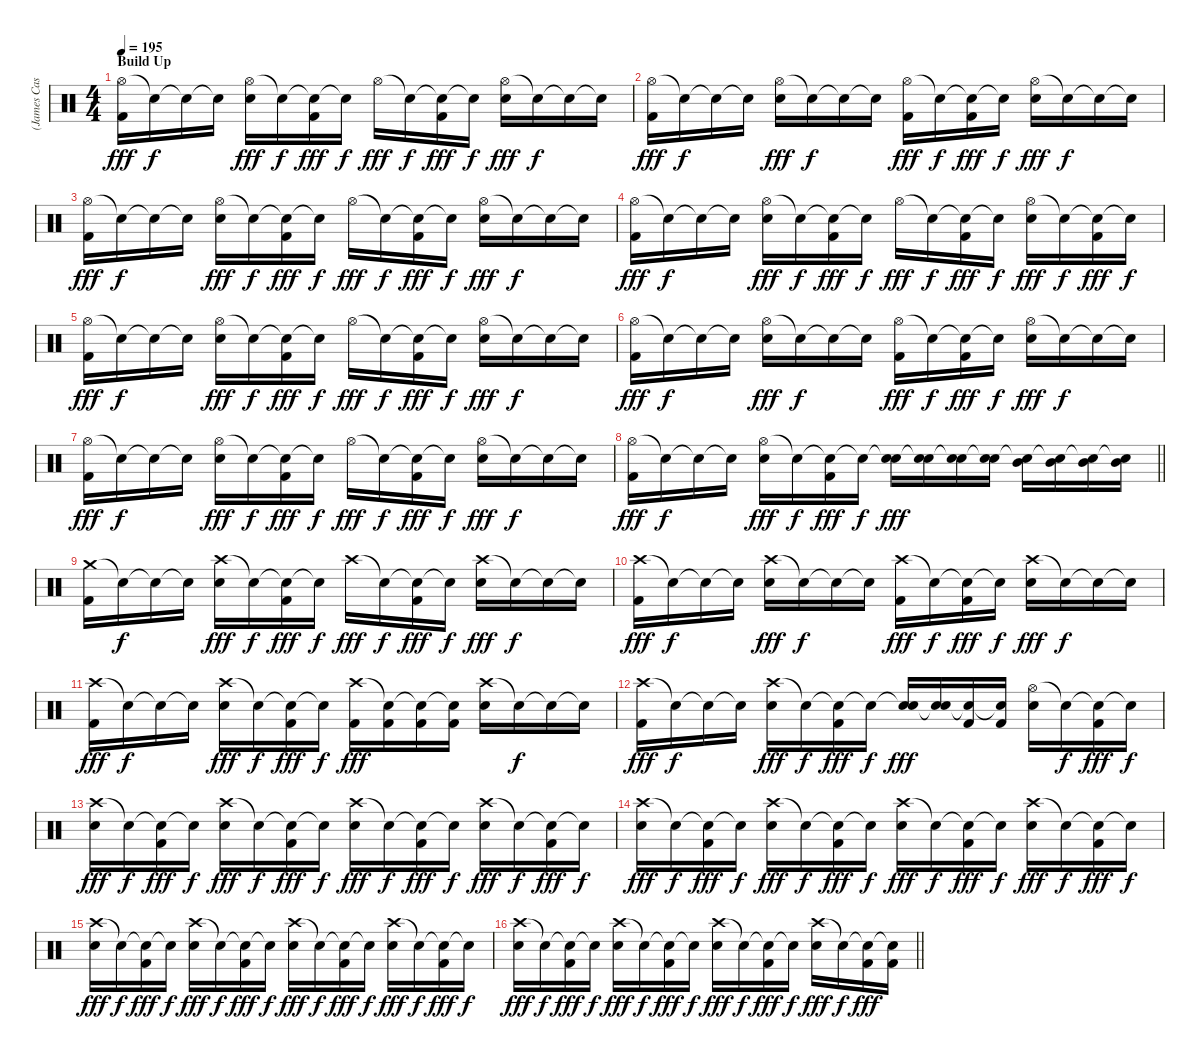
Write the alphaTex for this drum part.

\track ("(James Cassells) Drums" "(James Cas") {instrument percussion}
\staff {score}
\articulation defaults
\ts (4 4)
\section ("" "Build Up")
\tempo 195
\clef neutral
\ks c
("Hi-Hat (open)" "Kick (hit) 2").16{dy fff} "Snare (hit)"{t}.16{dy f} "Snare (hit)"{t}.16 "Snare (hit)"{t}.16 ("Hi-Hat (open)" "Electric Snare (hit)").16{dy fff} "Snare (hit)"{t}.16{dy f} ("Snare (hit)"{t} "Kick (hit) 2").16{dy fff} "Snare (hit)"{t}.16{dy f} "Hi-Hat (open)".16{dy fff} "Snare (hit)"{t}.16{dy f} ("Snare (hit)"{t} "Kick (hit) 2").16{dy fff} "Snare (hit)"{t}.16{dy f} ("Hi-Hat (open)" "Electric Snare (hit)").16{dy fff} "Snare (hit)"{t}.16{dy f} "Snare (hit)"{t}.16 "Snare (hit)"{t}.16 |
("Hi-Hat (open)" "Kick (hit) 2").16{dy fff} "Snare (hit)"{t}.16{dy f} "Snare (hit)"{t}.16 "Snare (hit)"{t}.16 ("Hi-Hat (open)" "Electric Snare (hit)").16{dy fff} "Snare (hit)"{t}.16{dy f} "Snare (hit)"{t}.16 "Snare (hit)"{t}.16 ("Hi-Hat (open)" "Kick (hit) 2").16{dy fff} "Snare (hit)"{t}.16{dy f} ("Snare (hit)"{t} "Kick (hit) 2").16{dy fff} "Snare (hit)"{t}.16{dy f} ("Hi-Hat (open)" "Electric Snare (hit)").16{dy fff} "Snare (hit)"{t}.16{dy f} "Snare (hit)"{t}.16 "Snare (hit)"{t}.16 |
("Hi-Hat (open)" "Kick (hit) 2").16{dy fff} "Snare (hit)"{t}.16{dy f} "Snare (hit)"{t}.16 "Snare (hit)"{t}.16 ("Hi-Hat (open)" "Electric Snare (hit)").16{dy fff} "Snare (hit)"{t}.16{dy f} ("Snare (hit)"{t} "Kick (hit) 2").16{dy fff} "Snare (hit)"{t}.16{dy f} "Hi-Hat (open)".16{dy fff} "Snare (hit)"{t}.16{dy f} ("Snare (hit)"{t} "Kick (hit) 2").16{dy fff} "Snare (hit)"{t}.16{dy f} ("Hi-Hat (open)" "Electric Snare (hit)").16{dy fff} "Snare (hit)"{t}.16{dy f} "Snare (hit)"{t}.16 "Snare (hit)"{t}.16 |
("Hi-Hat (open)" "Kick (hit) 2").16{dy fff} "Snare (hit)"{t}.16{dy f} "Snare (hit)"{t}.16 "Snare (hit)"{t}.16 ("Hi-Hat (open)" "Electric Snare (hit)").16{dy fff} "Snare (hit)"{t}.16{dy f} ("Snare (hit)"{t} "Kick (hit) 2").16{dy fff} "Snare (hit)"{t}.16{dy f} "Hi-Hat (open)".16{dy fff} "Snare (hit)"{t}.16{dy f} ("Snare (hit)"{t} "Kick (hit) 2").16{dy fff} "Snare (hit)"{t}.16{dy f} ("Hi-Hat (open)" "Electric Snare (hit)").16{dy fff} "Snare (hit)"{t}.16{dy f} ("Snare (hit)"{t} "Kick (hit) 2").16{dy fff} "Snare (hit)"{t}.16{dy f} |
("Hi-Hat (open)" "Kick (hit) 2").16{dy fff} "Snare (hit)"{t}.16{dy f} "Snare (hit)"{t}.16 "Snare (hit)"{t}.16 ("Hi-Hat (open)" "Electric Snare (hit)").16{dy fff} "Snare (hit)"{t}.16{dy f} ("Snare (hit)"{t} "Kick (hit) 2").16{dy fff} "Snare (hit)"{t}.16{dy f} "Hi-Hat (open)".16{dy fff} "Snare (hit)"{t}.16{dy f} ("Snare (hit)"{t} "Kick (hit) 2").16{dy fff} "Snare (hit)"{t}.16{dy f} ("Hi-Hat (open)" "Electric Snare (hit)").16{dy fff} "Snare (hit)"{t}.16{dy f} "Snare (hit)"{t}.16 "Snare (hit)"{t}.16 |
("Hi-Hat (open)" "Kick (hit) 2").16{dy fff} "Snare (hit)"{t}.16{dy f} "Snare (hit)"{t}.16 "Snare (hit)"{t}.16 ("Hi-Hat (open)" "Electric Snare (hit)").16{dy fff} "Snare (hit)"{t}.16{dy f} "Snare (hit)"{t}.16 "Snare (hit)"{t}.16 ("Hi-Hat (open)" "Kick (hit) 2").16{dy fff} "Snare (hit)"{t}.16{dy f} ("Snare (hit)"{t} "Kick (hit) 2").16{dy fff} "Snare (hit)"{t}.16{dy f} ("Hi-Hat (open)" "Electric Snare (hit)").16{dy fff} "Snare (hit)"{t}.16{dy f} "Snare (hit)"{t}.16 "Snare (hit)"{t}.16 |
("Hi-Hat (open)" "Kick (hit) 2").16{dy fff} "Snare (hit)"{t}.16{dy f} "Snare (hit)"{t}.16 "Snare (hit)"{t}.16 ("Hi-Hat (open)" "Electric Snare (hit)").16{dy fff} "Snare (hit)"{t}.16{dy f} ("Snare (hit)"{t} "Kick (hit) 2").16{dy fff} "Snare (hit)"{t}.16{dy f} "Hi-Hat (open)".16{dy fff} "Snare (hit)"{t}.16{dy f} ("Snare (hit)"{t} "Kick (hit) 2").16{dy fff} "Snare (hit)"{t}.16{dy f} ("Hi-Hat (open)" "Electric Snare (hit)").16{dy fff} "Snare (hit)"{t}.16{dy f} "Snare (hit)"{t}.16 "Snare (hit)"{t}.16 |
\barLineRight lightlight
("Hi-Hat (open)" "Kick (hit) 2").16{dy fff} "Snare (hit)"{t}.16{dy f} "Snare (hit)"{t}.16 "Snare (hit)"{t}.16 ("Hi-Hat (open)" "Electric Snare (hit)").16{dy fff} "Snare (hit)"{t}.16{dy f} ("Snare (hit)"{t} "Kick (hit) 2").16{dy fff} "Snare (hit)"{t}.16{dy f} ("Snare (hit)"{t} "Electric Snare (hit)").16{dy fff} ("Snare (hit)"{t} "Electric Snare (hit)").16 ("Snare (hit)"{t} "Electric Snare (hit)").16 ("Snare (hit)"{t} "Electric Snare (hit)").16 ("Snare (hit)"{t} "Mid Tom (hit)").16 ("Snare (hit)"{t} "Mid Tom (hit)").16 ("Snare (hit)"{t} "Mid Tom (hit)").16 ("Snare (hit)"{t} "Mid Tom (hit)").16 |
("Crash medium (hit)" "Kick (hit) 2").16 "Snare (hit)"{t}.16{dy f} "Snare (hit)"{t}.16 "Snare (hit)"{t}.16 ("Crash high (hit)" "Electric Snare (hit)").16{dy fff} "Snare (hit)"{t}.16{dy f} ("Snare (hit)"{t} "Kick (hit) 2").16{dy fff} "Snare (hit)"{t}.16{dy f} "Crash high (hit)".16{dy fff} "Snare (hit)"{t}.16{dy f} ("Snare (hit)"{t} "Kick (hit) 2").16{dy fff} "Snare (hit)"{t}.16{dy f} ("Crash high (hit)" "Electric Snare (hit)").16{dy fff} "Snare (hit)"{t}.16{dy f} "Snare (hit)"{t}.16 "Snare (hit)"{t}.16 |
("Crash high (hit)" "Kick (hit) 2").16{dy fff} "Snare (hit)"{t}.16{dy f} "Snare (hit)"{t}.16 "Snare (hit)"{t}.16 ("Crash high (hit)" "Electric Snare (hit)").16{dy fff} "Snare (hit)"{t}.16{dy f} "Snare (hit)"{t}.16 "Snare (hit)"{t}.16 ("Crash high (hit)" "Kick (hit) 2").16{dy fff} "Snare (hit)"{t}.16{dy f} ("Snare (hit)"{t} "Kick (hit) 2").16{dy fff} "Snare (hit)"{t}.16{dy f} ("Crash high (hit)" "Electric Snare (hit)").16{dy fff} "Snare (hit)"{t}.16{dy f} "Snare (hit)"{t}.16 "Snare (hit)"{t}.16 |
("Crash high (hit)" "Kick (hit) 2").16{dy fff} "Snare (hit)"{t}.16{dy f} "Snare (hit)"{t}.16 "Snare (hit)"{t}.16 ("Crash high (hit)" "Electric Snare (hit)").16{dy fff} "Snare (hit)"{t}.16{dy f} ("Snare (hit)"{t} "Kick (hit) 2").16{dy fff} "Snare (hit)"{t}.16{dy f} ("Crash high (hit)" "Kick (hit) 2").16{dy fff} ("Snare (hit)"{t} "Kick (hit) 2").16 ("Snare (hit)"{t} "Kick (hit) 2").16 ("Snare (hit)"{t} "Kick (hit) 2").16 ("Crash high (hit)" "Electric Snare (hit)").16 "Snare (hit)"{t}.16{dy f} "Snare (hit)"{t}.16 "Snare (hit)"{t}.16 |
("Crash high (hit)" "Kick (hit) 2").16{dy fff} "Snare (hit)"{t}.16{dy f} "Snare (hit)"{t}.16 "Snare (hit)"{t}.16 ("Crash high (hit)" "Electric Snare (hit)").16{dy fff} "Snare (hit)"{t}.16{dy f} ("Snare (hit)"{t} "Kick (hit) 2").16{dy fff} "Snare (hit)"{t}.16{dy f} ("Snare (hit)"{t} "Electric Snare (hit)").16{dy fff} ("Snare (hit)"{t} "Electric Snare (hit)").16 ("Snare (hit)"{t} "Kick (hit) 2").16 ("Snare (hit)"{t} "Kick (hit) 2").16 ("Hi-Hat (open)" "Electric Snare (hit)").16 "Snare (hit)"{t}.16{dy f} ("Snare (hit)"{t} "Kick (hit) 2").16{dy fff} "Snare (hit)"{t}.16{dy f} |
("Crash high (hit)" "Electric Snare (hit)").16{dy fff} "Snare (hit)"{t}.16{dy f} ("Snare (hit)"{t} "Kick (hit) 2").16{dy fff} "Snare (hit)"{t}.16{dy f} ("Crash high (hit)" "Electric Snare (hit)").16{dy fff} "Snare (hit)"{t}.16{dy f} ("Snare (hit)"{t} "Kick (hit) 2").16{dy fff} "Snare (hit)"{t}.16{dy f} ("Crash high (hit)" "Electric Snare (hit)").16{dy fff} "Snare (hit)"{t}.16{dy f} ("Snare (hit)"{t} "Kick (hit) 2").16{dy fff} "Snare (hit)"{t}.16{dy f} ("Crash high (hit)" "Electric Snare (hit)").16{dy fff} "Snare (hit)"{t}.16{dy f} ("Snare (hit)"{t} "Kick (hit) 2").16{dy fff} "Snare (hit)"{t}.16{dy f} |
("Crash high (hit)" "Electric Snare (hit)").16{dy fff} "Snare (hit)"{t}.16{dy f} ("Snare (hit)"{t} "Kick (hit) 2").16{dy fff} "Snare (hit)"{t}.16{dy f} ("Crash high (hit)" "Electric Snare (hit)").16{dy fff} "Snare (hit)"{t}.16{dy f} ("Snare (hit)"{t} "Kick (hit) 2").16{dy fff} "Snare (hit)"{t}.16{dy f} ("Crash high (hit)" "Electric Snare (hit)").16{dy fff} "Snare (hit)"{t}.16{dy f} ("Snare (hit)"{t} "Kick (hit) 2").16{dy fff} "Snare (hit)"{t}.16{dy f} ("Crash high (hit)" "Electric Snare (hit)").16{dy fff} "Snare (hit)"{t}.16{dy f} ("Snare (hit)"{t} "Kick (hit) 2").16{dy fff} "Snare (hit)"{t}.16{dy f} |
("Crash high (hit)" "Electric Snare (hit)").16{dy fff} "Snare (hit)"{t}.16{dy f} ("Snare (hit)"{t} "Kick (hit) 2").16{dy fff} "Snare (hit)"{t}.16{dy f} ("Crash high (hit)" "Electric Snare (hit)").16{dy fff} "Snare (hit)"{t}.16{dy f} ("Snare (hit)"{t} "Kick (hit) 2").16{dy fff} "Snare (hit)"{t}.16{dy f} ("Crash high (hit)" "Electric Snare (hit)").16{dy fff} "Snare (hit)"{t}.16{dy f} ("Snare (hit)"{t} "Kick (hit) 2").16{dy fff} "Snare (hit)"{t}.16{dy f} ("Crash high (hit)" "Electric Snare (hit)").16{dy fff} "Snare (hit)"{t}.16{dy f} ("Snare (hit)"{t} "Kick (hit) 2").16{dy fff} "Snare (hit)"{t}.16{dy f} |
\barLineRight lightlight
("Crash high (hit)" "Electric Snare (hit)").16{dy fff} "Snare (hit)"{t}.16{dy f} ("Snare (hit)"{t} "Kick (hit) 2").16{dy fff} "Snare (hit)"{t}.16{dy f} ("Crash high (hit)" "Electric Snare (hit)").16{dy fff} "Snare (hit)"{t}.16{dy f} ("Snare (hit)"{t} "Kick (hit) 2").16{dy fff} "Snare (hit)"{t}.16{dy f} ("Crash high (hit)" "Electric Snare (hit)").16{dy fff} "Snare (hit)"{t}.16{dy f} ("Snare (hit)"{t} "Kick (hit) 2").16{dy fff} "Snare (hit)"{t}.16{dy f} ("Crash high (hit)" "Electric Snare (hit)").16{dy fff} "Snare (hit)"{t}.16{dy f} ("Snare (hit)"{t} "Kick (hit) 2").16{dy fff} ("Snare (hit)"{t} "Kick (hit) 2").16
